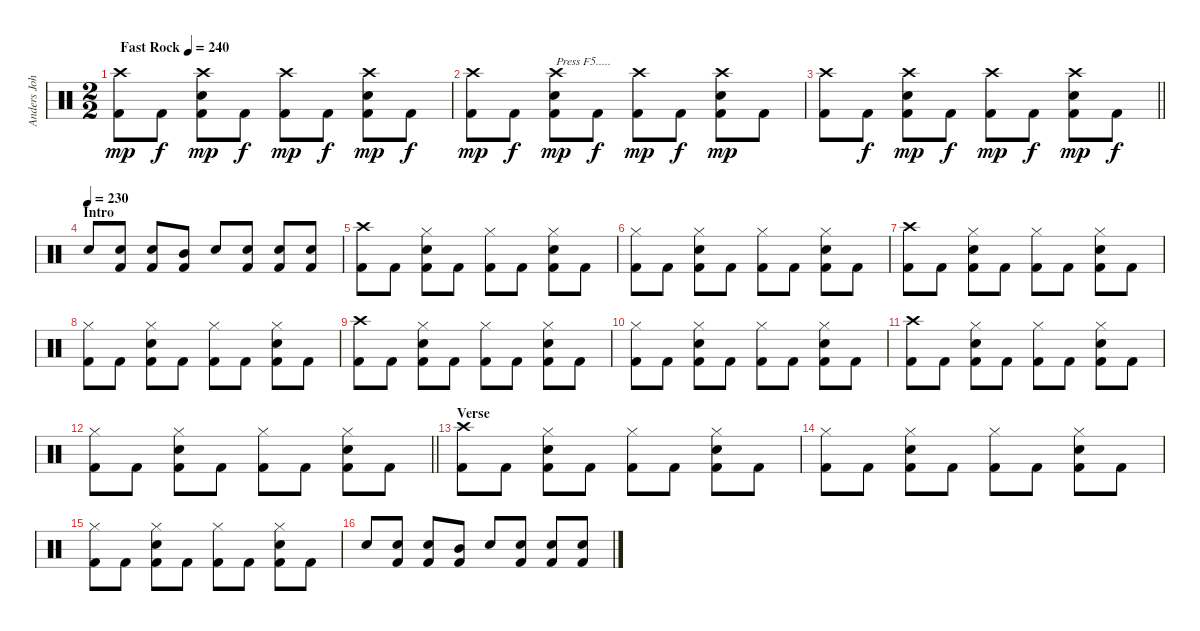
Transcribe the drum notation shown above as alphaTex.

\track ("Anders Johansson" "Anders Joh") {instrument percussion}
\staff {score}
\articulation defaults
\ts (2 2)
\tempo (240 "Fast Rock")
\clef neutral
\ks c
("Crash high (hit)" "Kick (hit) 2").8{dy mp} "Kick (hit) 2".8{dy f} ("Crash high (hit)" "Electric Snare (hit)" "Kick (hit) 2").8{dy mp} "Kick (hit) 2".8{dy f} ("Crash high (hit)" "Kick (hit) 2").8{dy mp} "Kick (hit) 2".8{dy f} ("Crash high (hit)" "Electric Snare (hit)" "Kick (hit) 2").8{dy mp} "Kick (hit) 2".8{dy f} |
("Crash high (hit)" "Kick (hit) 2").8{dy mp} "Kick (hit) 2".8{dy f} ("Crash high (hit)" "Electric Snare (hit)" "Kick (hit) 2").8{txt "Press F5....." dy mp} "Kick (hit) 2".8{dy f} ("Crash high (hit)" "Kick (hit) 2").8{dy mp} "Kick (hit) 2".8{dy f} ("Crash high (hit)" "Electric Snare (hit)" "Kick (hit) 2").8{dy mp} "Kick (hit) 2".8 |
\barLineRight lightlight
("Crash high (hit)" "Kick (hit) 2").8 "Kick (hit) 2".8{dy f} ("Crash high (hit)" "Electric Snare (hit)" "Kick (hit) 2").8{dy mp} "Kick (hit) 2".8{dy f} ("Crash high (hit)" "Kick (hit) 2").8{dy mp} "Kick (hit) 2".8{dy f} ("Crash high (hit)" "Electric Snare (hit)" "Kick (hit) 2").8{dy mp} "Kick (hit) 2".8{dy f} |
\section ("" "Intro")
\tempo (230)
"Electric Snare (hit)".8 ("Electric Snare (hit)" "Kick (hit) 2").8 ("Electric Snare (hit)" "Kick (hit) 2").8 ("Mid Tom (hit)" "Kick (hit) 2").8 "Electric Snare (hit)".8 ("Electric Snare (hit)" "Kick (hit) 2").8 ("Electric Snare (hit)" "Kick (hit) 2").8 ("Electric Snare (hit)" "Kick (hit) 2").8 |
("Crash high (hit)" "Kick (hit) 2").8 "Kick (hit) 2".8 ("Electric Snare (hit)" "Hi-Hat (closed)" "Kick (hit) 2").8 "Kick (hit) 2".8 ("Hi-Hat (closed)" "Kick (hit) 2").8 "Kick (hit) 2".8 ("Electric Snare (hit)" "Hi-Hat (closed)" "Kick (hit) 2").8 "Kick (hit) 2".8 |
("Hi-Hat (closed)" "Kick (hit) 2").8 "Kick (hit) 2".8 ("Electric Snare (hit)" "Hi-Hat (closed)" "Kick (hit) 2").8 "Kick (hit) 2".8 ("Hi-Hat (closed)" "Kick (hit) 2").8 "Kick (hit) 2".8 ("Electric Snare (hit)" "Hi-Hat (closed)" "Kick (hit) 2").8 "Kick (hit) 2".8 |
("Crash high (hit)" "Kick (hit) 2").8 "Kick (hit) 2".8 ("Electric Snare (hit)" "Hi-Hat (closed)" "Kick (hit) 2").8 "Kick (hit) 2".8 ("Hi-Hat (closed)" "Kick (hit) 2").8 "Kick (hit) 2".8 ("Electric Snare (hit)" "Hi-Hat (closed)" "Kick (hit) 2").8 "Kick (hit) 2".8 |
("Hi-Hat (closed)" "Kick (hit) 2").8 "Kick (hit) 2".8 ("Electric Snare (hit)" "Hi-Hat (closed)" "Kick (hit) 2").8 "Kick (hit) 2".8 ("Hi-Hat (closed)" "Kick (hit) 2").8 "Kick (hit) 2".8 ("Electric Snare (hit)" "Hi-Hat (closed)" "Kick (hit) 2").8 "Kick (hit) 2".8 |
("Crash high (hit)" "Kick (hit) 2").8 "Kick (hit) 2".8 ("Electric Snare (hit)" "Hi-Hat (closed)" "Kick (hit) 2").8 "Kick (hit) 2".8 ("Hi-Hat (closed)" "Kick (hit) 2").8 "Kick (hit) 2".8 ("Electric Snare (hit)" "Hi-Hat (closed)" "Kick (hit) 2").8 "Kick (hit) 2".8 |
("Hi-Hat (closed)" "Kick (hit) 2").8 "Kick (hit) 2".8 ("Electric Snare (hit)" "Hi-Hat (closed)" "Kick (hit) 2").8 "Kick (hit) 2".8 ("Hi-Hat (closed)" "Kick (hit) 2").8 "Kick (hit) 2".8 ("Electric Snare (hit)" "Hi-Hat (closed)" "Kick (hit) 2").8 "Kick (hit) 2".8 |
("Crash high (hit)" "Kick (hit) 2").8 "Kick (hit) 2".8 ("Electric Snare (hit)" "Hi-Hat (closed)" "Kick (hit) 2").8 "Kick (hit) 2".8 ("Hi-Hat (closed)" "Kick (hit) 2").8 "Kick (hit) 2".8 ("Electric Snare (hit)" "Hi-Hat (closed)" "Kick (hit) 2").8 "Kick (hit) 2".8 |
\barLineRight lightlight
("Hi-Hat (closed)" "Kick (hit) 2").8 "Kick (hit) 2".8 ("Electric Snare (hit)" "Hi-Hat (closed)" "Kick (hit) 2").8 "Kick (hit) 2".8 ("Hi-Hat (closed)" "Kick (hit) 2").8 "Kick (hit) 2".8 ("Electric Snare (hit)" "Hi-Hat (closed)" "Kick (hit) 2").8 "Kick (hit) 2".8 |
\section ("" "Verse")
("Crash high (hit)" "Kick (hit) 2").8 "Kick (hit) 2".8 ("Electric Snare (hit)" "Hi-Hat (closed)" "Kick (hit) 2").8 "Kick (hit) 2".8 ("Hi-Hat (closed)" "Kick (hit) 2").8 "Kick (hit) 2".8 ("Electric Snare (hit)" "Hi-Hat (closed)" "Kick (hit) 2").8 "Kick (hit) 2".8 |
("Hi-Hat (closed)" "Kick (hit) 2").8 "Kick (hit) 2".8 ("Electric Snare (hit)" "Hi-Hat (closed)" "Kick (hit) 2").8 "Kick (hit) 2".8 ("Hi-Hat (closed)" "Kick (hit) 2").8 "Kick (hit) 2".8 ("Electric Snare (hit)" "Hi-Hat (closed)" "Kick (hit) 2").8 "Kick (hit) 2".8 |
("Hi-Hat (closed)" "Kick (hit) 2").8 "Kick (hit) 2".8 ("Electric Snare (hit)" "Hi-Hat (closed)" "Kick (hit) 2").8 "Kick (hit) 2".8 ("Hi-Hat (closed)" "Kick (hit) 2").8 "Kick (hit) 2".8 ("Electric Snare (hit)" "Hi-Hat (closed)" "Kick (hit) 2").8 "Kick (hit) 2".8 |
"Electric Snare (hit)".8 ("Electric Snare (hit)" "Kick (hit) 2").8 ("Electric Snare (hit)" "Kick (hit) 2").8 ("Mid Tom (hit)" "Kick (hit) 2").8 "Electric Snare (hit)".8 ("Electric Snare (hit)" "Kick (hit) 2").8 ("Electric Snare (hit)" "Kick (hit) 2").8 ("Electric Snare (hit)" "Kick (hit) 2").8
